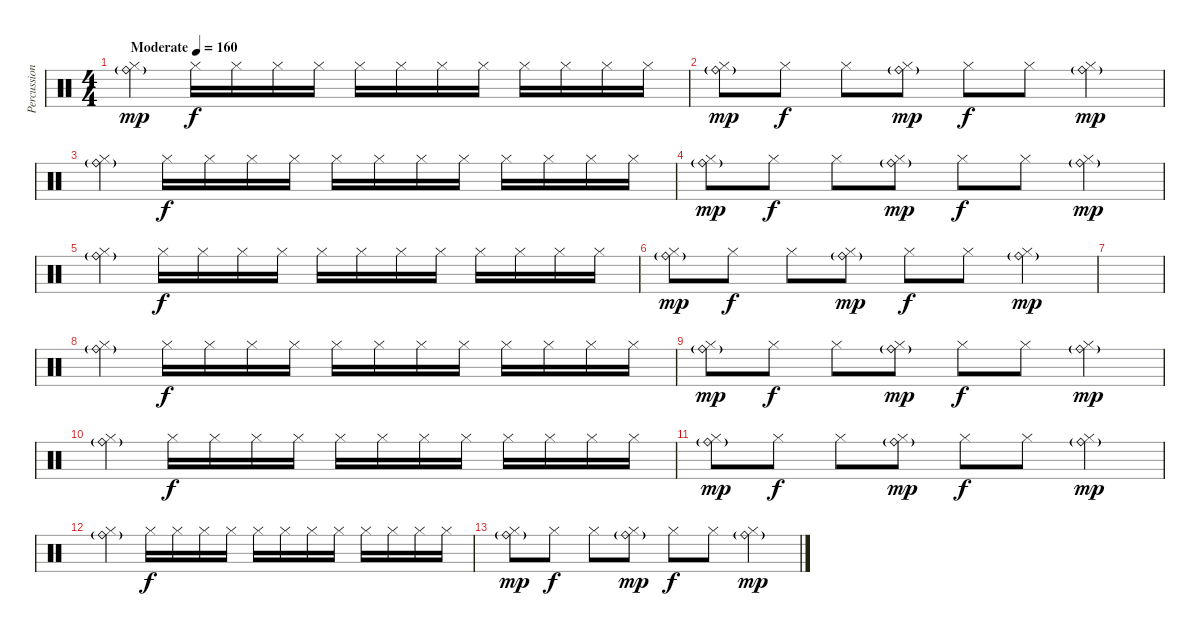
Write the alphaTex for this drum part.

\track ("Percussion" "Percussion") {instrument percussion}
\staff {score}
\articulation defaults
\ts (4 4)
\tempo (160 "Moderate")
\clef neutral
\ks c
("Hi-Hat (closed)" "Ride (bell)"{g}).4{dy mp} "Hi-Hat (closed)".16{dy f} "Hi-Hat (closed)".16 "Hi-Hat (closed)".16 "Hi-Hat (closed)".16 "Hi-Hat (closed)".16 "Hi-Hat (closed)".16 "Hi-Hat (closed)".16 "Hi-Hat (closed)".16 "Hi-Hat (closed)".16 "Hi-Hat (closed)".16 "Hi-Hat (closed)".16 "Hi-Hat (closed)".16 |
("Hi-Hat (closed)" "Ride (bell)"{g}).8{dy mp} "Hi-Hat (closed)".8{dy f} "Hi-Hat (closed)".8 ("Hi-Hat (closed)" "Ride (bell)"{g}).8{dy mp} "Hi-Hat (closed)".8{dy f} "Hi-Hat (closed)".8 ("Hi-Hat (closed)" "Ride (bell)"{g}).4{dy mp} |
("Hi-Hat (closed)" "Ride (bell)"{g}).4 "Hi-Hat (closed)".16{dy f} "Hi-Hat (closed)".16 "Hi-Hat (closed)".16 "Hi-Hat (closed)".16 "Hi-Hat (closed)".16 "Hi-Hat (closed)".16 "Hi-Hat (closed)".16 "Hi-Hat (closed)".16 "Hi-Hat (closed)".16 "Hi-Hat (closed)".16 "Hi-Hat (closed)".16 "Hi-Hat (closed)".16 |
("Hi-Hat (closed)" "Ride (bell)"{g}).8{dy mp} "Hi-Hat (closed)".8{dy f} "Hi-Hat (closed)".8 ("Hi-Hat (closed)" "Ride (bell)"{g}).8{dy mp} "Hi-Hat (closed)".8{dy f} "Hi-Hat (closed)".8 ("Hi-Hat (closed)" "Ride (bell)"{g}).4{dy mp} |
("Hi-Hat (closed)" "Ride (bell)"{g}).4 "Hi-Hat (closed)".16{dy f} "Hi-Hat (closed)".16 "Hi-Hat (closed)".16 "Hi-Hat (closed)".16 "Hi-Hat (closed)".16 "Hi-Hat (closed)".16 "Hi-Hat (closed)".16 "Hi-Hat (closed)".16 "Hi-Hat (closed)".16 "Hi-Hat (closed)".16 "Hi-Hat (closed)".16 "Hi-Hat (closed)".16 |
("Hi-Hat (closed)" "Ride (bell)"{g}).8{dy mp} "Hi-Hat (closed)".8{dy f} "Hi-Hat (closed)".8 ("Hi-Hat (closed)" "Ride (bell)"{g}).8{dy mp} "Hi-Hat (closed)".8{dy f} "Hi-Hat (closed)".8 ("Hi-Hat (closed)" "Ride (bell)"{g}).4{dy mp} |
|
("Hi-Hat (closed)" "Ride (bell)"{g}).4 "Hi-Hat (closed)".16{dy f} "Hi-Hat (closed)".16 "Hi-Hat (closed)".16 "Hi-Hat (closed)".16 "Hi-Hat (closed)".16 "Hi-Hat (closed)".16 "Hi-Hat (closed)".16 "Hi-Hat (closed)".16 "Hi-Hat (closed)".16 "Hi-Hat (closed)".16 "Hi-Hat (closed)".16 "Hi-Hat (closed)".16 |
("Hi-Hat (closed)" "Ride (bell)"{g}).8{dy mp} "Hi-Hat (closed)".8{dy f} "Hi-Hat (closed)".8 ("Hi-Hat (closed)" "Ride (bell)"{g}).8{dy mp} "Hi-Hat (closed)".8{dy f} "Hi-Hat (closed)".8 ("Hi-Hat (closed)" "Ride (bell)"{g}).4{dy mp} |
("Hi-Hat (closed)" "Ride (bell)"{g}).4 "Hi-Hat (closed)".16{dy f} "Hi-Hat (closed)".16 "Hi-Hat (closed)".16 "Hi-Hat (closed)".16 "Hi-Hat (closed)".16 "Hi-Hat (closed)".16 "Hi-Hat (closed)".16 "Hi-Hat (closed)".16 "Hi-Hat (closed)".16 "Hi-Hat (closed)".16 "Hi-Hat (closed)".16 "Hi-Hat (closed)".16 |
("Hi-Hat (closed)" "Ride (bell)"{g}).8{dy mp} "Hi-Hat (closed)".8{dy f} "Hi-Hat (closed)".8 ("Hi-Hat (closed)" "Ride (bell)"{g}).8{dy mp} "Hi-Hat (closed)".8{dy f} "Hi-Hat (closed)".8 ("Hi-Hat (closed)" "Ride (bell)"{g}).4{dy mp} |
("Hi-Hat (closed)" "Ride (bell)"{g}).4 "Hi-Hat (closed)".16{dy f} "Hi-Hat (closed)".16 "Hi-Hat (closed)".16 "Hi-Hat (closed)".16 "Hi-Hat (closed)".16 "Hi-Hat (closed)".16 "Hi-Hat (closed)".16 "Hi-Hat (closed)".16 "Hi-Hat (closed)".16 "Hi-Hat (closed)".16 "Hi-Hat (closed)".16 "Hi-Hat (closed)".16 |
("Hi-Hat (closed)" "Ride (bell)"{g}).8{dy mp} "Hi-Hat (closed)".8{dy f} "Hi-Hat (closed)".8 ("Hi-Hat (closed)" "Ride (bell)"{g}).8{dy mp} "Hi-Hat (closed)".8{dy f} "Hi-Hat (closed)".8 ("Hi-Hat (closed)" "Ride (bell)"{g}).4{dy mp}
